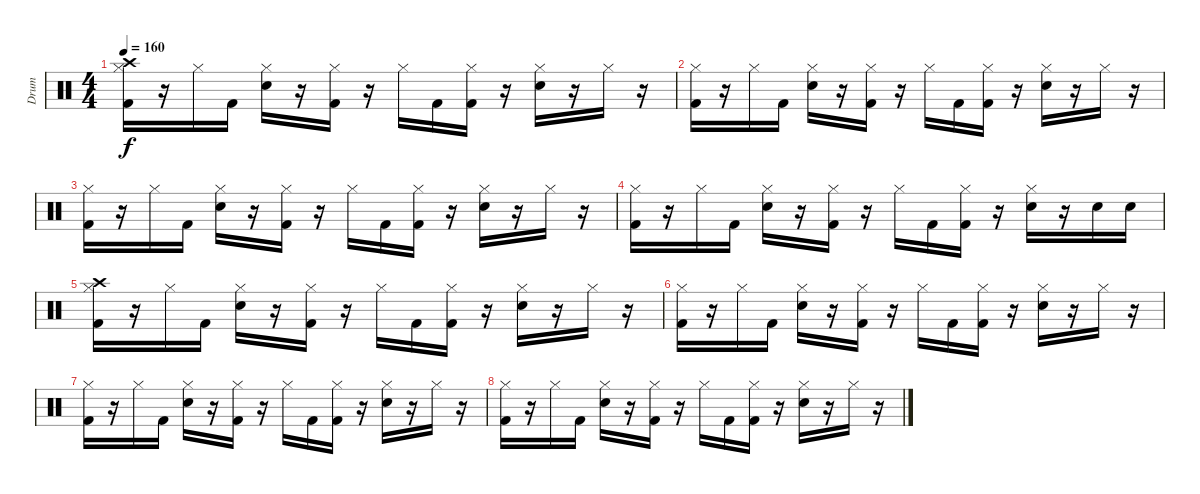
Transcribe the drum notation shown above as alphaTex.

\track ("Drum" "Drum") {instrument percussion}
\staff {score}
\articulation defaults
\ts (4 4)
\tempo 160
\clef neutral
\ks c
("Crash high (hit)" "Hi-Hat (closed)" "Kick (hit) 2").16{dy f} r.16 "Hi-Hat (closed)".16 "Kick (hit) 2".16 ("Hi-Hat (closed)" "Snare (hit) 2").16 r.16 ("Hi-Hat (closed)" "Kick (hit) 2").16 r.16 "Hi-Hat (closed)".16 "Kick (hit) 2".16 ("Hi-Hat (closed)" "Kick (hit) 2").16 r.16 ("Hi-Hat (closed)" "Snare (hit) 2").16 r.16 "Hi-Hat (closed)".16 r.16 |
("Hi-Hat (closed)" "Kick (hit) 2").16 r.16 "Hi-Hat (closed)".16 "Kick (hit) 2".16 ("Hi-Hat (closed)" "Snare (hit) 2").16 r.16 ("Hi-Hat (closed)" "Kick (hit) 2").16 r.16 "Hi-Hat (closed)".16 "Kick (hit) 2".16 ("Hi-Hat (closed)" "Kick (hit) 2").16 r.16 ("Hi-Hat (closed)" "Snare (hit) 2").16 r.16 "Hi-Hat (closed)".16 r.16 |
("Hi-Hat (closed)" "Kick (hit) 2").16 r.16 "Hi-Hat (closed)".16 "Kick (hit) 2".16 ("Hi-Hat (closed)" "Snare (hit) 2").16 r.16 ("Hi-Hat (closed)" "Kick (hit) 2").16 r.16 "Hi-Hat (closed)".16 "Kick (hit) 2".16 ("Hi-Hat (closed)" "Kick (hit) 2").16 r.16 ("Hi-Hat (closed)" "Snare (hit) 2").16 r.16 "Hi-Hat (closed)".16 r.16 |
("Hi-Hat (closed)" "Kick (hit) 2").16 r.16 "Hi-Hat (closed)".16 "Kick (hit) 2".16 ("Hi-Hat (closed)" "Snare (hit) 2").16 r.16 ("Hi-Hat (closed)" "Kick (hit) 2").16 r.16 "Hi-Hat (closed)".16 "Kick (hit) 2".16 ("Hi-Hat (closed)" "Kick (hit) 2").16 r.16 ("Hi-Hat (closed)" "Snare (hit) 2").16 r.16 "Snare (hit) 2".16 "Snare (hit) 2".16 |
("Crash high (hit)" "Hi-Hat (closed)" "Kick (hit) 2").16 r.16 "Hi-Hat (closed)".16 "Kick (hit) 2".16 ("Hi-Hat (closed)" "Snare (hit) 2").16 r.16 ("Hi-Hat (closed)" "Kick (hit) 2").16 r.16 "Hi-Hat (closed)".16 "Kick (hit) 2".16 ("Hi-Hat (closed)" "Kick (hit) 2").16 r.16 ("Hi-Hat (closed)" "Snare (hit) 2").16 r.16 "Hi-Hat (closed)".16 r.16 |
("Hi-Hat (closed)" "Kick (hit) 2").16 r.16 "Hi-Hat (closed)".16 "Kick (hit) 2".16 ("Hi-Hat (closed)" "Snare (hit) 2").16 r.16 ("Hi-Hat (closed)" "Kick (hit) 2").16 r.16 "Hi-Hat (closed)".16 "Kick (hit) 2".16 ("Hi-Hat (closed)" "Kick (hit) 2").16 r.16 ("Hi-Hat (closed)" "Snare (hit) 2").16 r.16 "Hi-Hat (closed)".16 r.16 |
("Hi-Hat (closed)" "Kick (hit) 2").16 r.16 "Hi-Hat (closed)".16 "Kick (hit) 2".16 ("Hi-Hat (closed)" "Snare (hit) 2").16 r.16 ("Hi-Hat (closed)" "Kick (hit) 2").16 r.16 "Hi-Hat (closed)".16 "Kick (hit) 2".16 ("Hi-Hat (closed)" "Kick (hit) 2").16 r.16 ("Hi-Hat (closed)" "Snare (hit) 2").16 r.16 "Hi-Hat (closed)".16 r.16 |
("Hi-Hat (closed)" "Kick (hit) 2").16 r.16 "Hi-Hat (closed)".16 "Kick (hit) 2".16 ("Hi-Hat (closed)" "Snare (hit) 2").16 r.16 ("Hi-Hat (closed)" "Kick (hit) 2").16 r.16 "Hi-Hat (closed)".16 "Kick (hit) 2".16 ("Hi-Hat (closed)" "Kick (hit) 2").16 r.16 ("Hi-Hat (closed)" "Snare (hit) 2").16 r.16 "Hi-Hat (closed)".16 r.16
